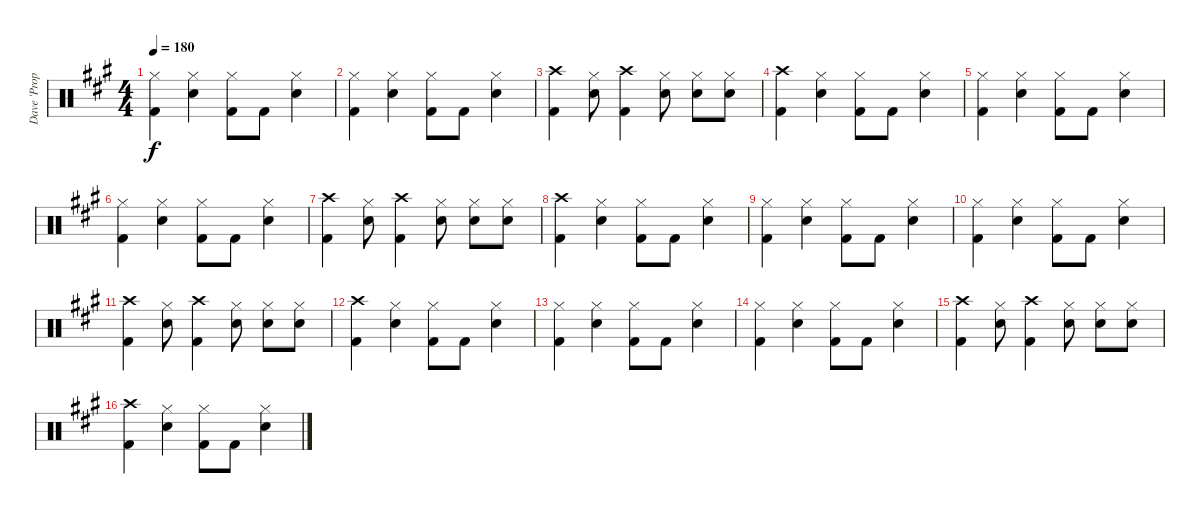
\track ("Dave 'Proper' Caution" "Dave 'Prop") {instrument percussion}
\staff {score}
\articulation defaults
\ts (4 4)
\tempo 180
\clef neutral
\ks a
("Hi-Hat (closed)" "Kick (hit) 2").4{dy f} ("Hi-Hat (closed)" "Electric Snare (hit)").4 ("Hi-Hat (closed)" "Kick (hit) 2").8 "Kick (hit) 2".8 ("Hi-Hat (closed)" "Electric Snare (hit)").4 |
("Hi-Hat (closed)" "Kick (hit) 2").4 ("Hi-Hat (closed)" "Electric Snare (hit)").4 ("Hi-Hat (closed)" "Kick (hit) 2").8 "Kick (hit) 2".8 ("Hi-Hat (closed)" "Electric Snare (hit)").4 |
("Crash high (hit)" "Kick (hit) 2").4 ("Hi-Hat (closed)" "Electric Snare (hit)").8 ("Crash high (hit)" "Kick (hit) 2").4 ("Hi-Hat (closed)" "Electric Snare (hit)").8 ("Hi-Hat (closed)" "Electric Snare (hit)").8 ("Hi-Hat (closed)" "Electric Snare (hit)").8 |
("Crash high (hit)" "Kick (hit) 2").4 ("Hi-Hat (closed)" "Electric Snare (hit)").4 ("Hi-Hat (closed)" "Kick (hit) 2").8 "Kick (hit) 2".8 ("Hi-Hat (closed)" "Electric Snare (hit)").4 |
("Hi-Hat (closed)" "Kick (hit) 2").4 ("Hi-Hat (closed)" "Electric Snare (hit)").4 ("Hi-Hat (closed)" "Kick (hit) 2").8 "Kick (hit) 2".8 ("Hi-Hat (closed)" "Electric Snare (hit)").4 |
("Hi-Hat (closed)" "Kick (hit) 2").4 ("Hi-Hat (closed)" "Electric Snare (hit)").4 ("Hi-Hat (closed)" "Kick (hit) 2").8 "Kick (hit) 2".8 ("Hi-Hat (closed)" "Electric Snare (hit)").4 |
("Crash high (hit)" "Kick (hit) 2").4 ("Hi-Hat (closed)" "Electric Snare (hit)").8 ("Crash high (hit)" "Kick (hit) 2").4 ("Hi-Hat (closed)" "Electric Snare (hit)").8 ("Hi-Hat (closed)" "Electric Snare (hit)").8 ("Hi-Hat (closed)" "Electric Snare (hit)").8 |
("Crash high (hit)" "Kick (hit) 2").4 ("Hi-Hat (closed)" "Electric Snare (hit)").4 ("Hi-Hat (closed)" "Kick (hit) 2").8 "Kick (hit) 2".8 ("Hi-Hat (closed)" "Electric Snare (hit)").4 |
("Hi-Hat (closed)" "Kick (hit) 2").4 ("Hi-Hat (closed)" "Electric Snare (hit)").4 ("Hi-Hat (closed)" "Kick (hit) 2").8 "Kick (hit) 2".8 ("Hi-Hat (closed)" "Electric Snare (hit)").4 |
("Hi-Hat (closed)" "Kick (hit) 2").4 ("Hi-Hat (closed)" "Electric Snare (hit)").4 ("Hi-Hat (closed)" "Kick (hit) 2").8 "Kick (hit) 2".8 ("Hi-Hat (closed)" "Electric Snare (hit)").4 |
("Crash high (hit)" "Kick (hit) 2").4 ("Hi-Hat (closed)" "Electric Snare (hit)").8 ("Crash high (hit)" "Kick (hit) 2").4 ("Hi-Hat (closed)" "Electric Snare (hit)").8 ("Hi-Hat (closed)" "Electric Snare (hit)").8 ("Hi-Hat (closed)" "Electric Snare (hit)").8 |
("Crash high (hit)" "Kick (hit) 2").4 ("Hi-Hat (closed)" "Electric Snare (hit)").4 ("Hi-Hat (closed)" "Kick (hit) 2").8 "Kick (hit) 2".8 ("Hi-Hat (closed)" "Electric Snare (hit)").4 |
("Hi-Hat (closed)" "Kick (hit) 2").4 ("Hi-Hat (closed)" "Electric Snare (hit)").4 ("Hi-Hat (closed)" "Kick (hit) 2").8 "Kick (hit) 2".8 ("Hi-Hat (closed)" "Electric Snare (hit)").4 |
("Hi-Hat (closed)" "Kick (hit) 2").4 ("Hi-Hat (closed)" "Electric Snare (hit)").4 ("Hi-Hat (closed)" "Kick (hit) 2").8 "Kick (hit) 2".8 ("Hi-Hat (closed)" "Electric Snare (hit)").4 |
("Crash high (hit)" "Kick (hit) 2").4 ("Hi-Hat (closed)" "Electric Snare (hit)").8 ("Crash high (hit)" "Kick (hit) 2").4 ("Hi-Hat (closed)" "Electric Snare (hit)").8 ("Hi-Hat (closed)" "Electric Snare (hit)").8 ("Hi-Hat (closed)" "Electric Snare (hit)").8 |
("Crash high (hit)" "Kick (hit) 2").4 ("Hi-Hat (closed)" "Electric Snare (hit)").4 ("Hi-Hat (closed)" "Kick (hit) 2").8 "Kick (hit) 2".8 ("Hi-Hat (closed)" "Electric Snare (hit)").4
